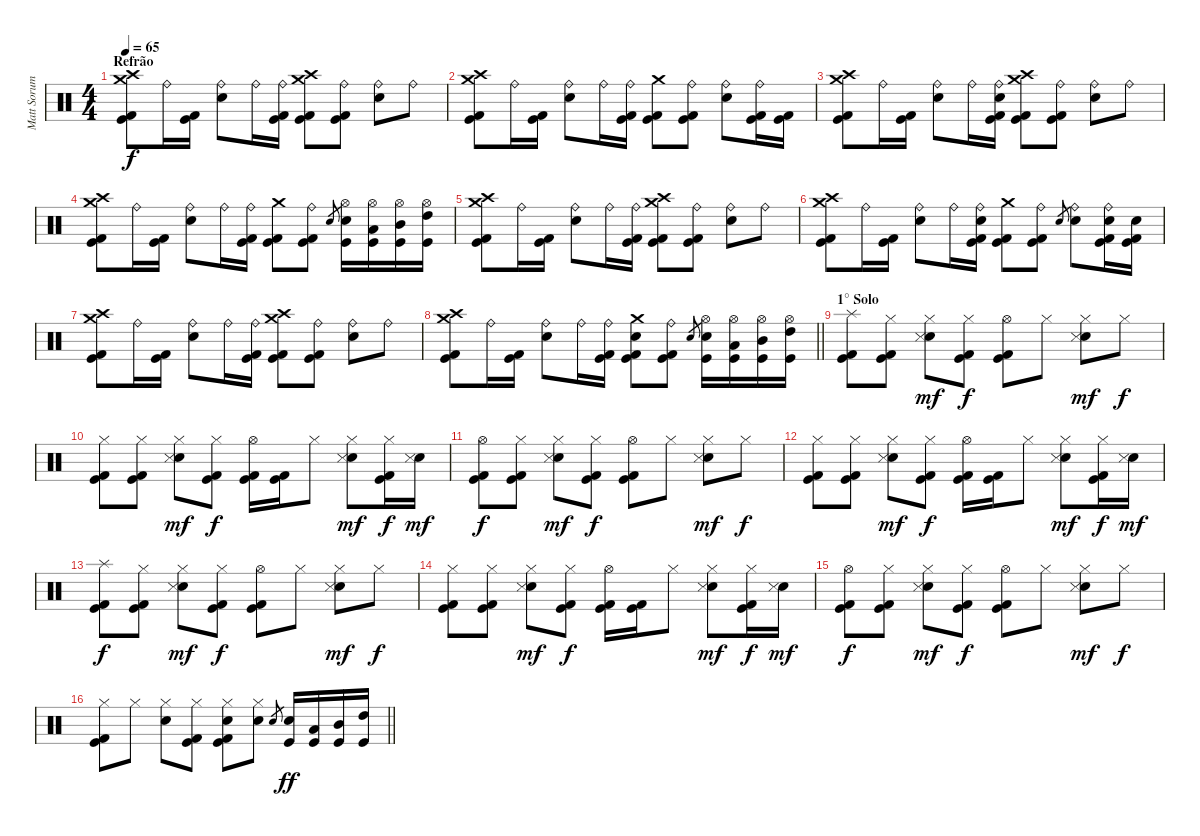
\track ("Matt Sorum" "Matt Sorum") {instrument percussion}
\staff {score}
\articulation defaults
\ts (4 4)
\section ("" "Refrão")
\tempo 65
\clef neutral
\ks c
("Crash medium (hit)" "Crash high (hit)" "Kick (hit) 2" "Kick (hit)").8{dy f} "Ride (bell)".16 ("Kick (hit) 2" "Kick (hit)").16 ("Ride (bell)" "Electric Snare (hit)").8 "Ride (bell)".16 ("Ride (bell)" "Kick (hit) 2" "Kick (hit)").16 ("Crash medium (hit)" "Crash high (hit)" "Kick (hit) 2" "Kick (hit)").8 ("Ride (bell)" "Kick (hit) 2" "Kick (hit)").8 ("Ride (bell)" "Electric Snare (hit)").8 "Ride (bell)".8 |
("Crash medium (hit)" "Crash high (hit)" "Kick (hit) 2" "Kick (hit)").8 "Ride (bell)".16 ("Kick (hit) 2" "Kick (hit)").16 ("Ride (bell)" "Electric Snare (hit)").8 "Ride (bell)".16 ("Ride (bell)" "Kick (hit) 2" "Kick (hit)").16 ("Crash medium (hit)" "Kick (hit) 2" "Kick (hit)").8 ("Ride (bell)" "Kick (hit) 2" "Kick (hit)").8 ("Ride (bell)" "Electric Snare (hit)").8 ("Ride (bell)" "Kick (hit) 2" "Kick (hit)").16 ("Kick (hit) 2" "Kick (hit)").16 |
("Crash medium (hit)" "Crash high (hit)" "Kick (hit) 2" "Kick (hit)").8 "Ride (bell)".16 ("Kick (hit) 2" "Kick (hit)").16 ("Ride (bell)" "Electric Snare (hit)").8 "Ride (bell)".16 ("Ride (bell)" "Electric Snare (hit)" "Kick (hit) 2" "Kick (hit)").16 ("Crash medium (hit)" "Crash high (hit)" "Kick (hit) 2" "Kick (hit)").8 ("Ride (bell)" "Kick (hit) 2" "Kick (hit)").8 ("Ride (bell)" "Electric Snare (hit)").8 "Ride (bell)".8 |
("Crash medium (hit)" "Crash high (hit)" "Kick (hit) 2" "Kick (hit)").8 "Ride (bell)".16 ("Kick (hit) 2" "Kick (hit)").16 ("Ride (bell)" "Electric Snare (hit)").8 "Ride (bell)".16 ("Ride (bell)" "Kick (hit) 2" "Kick (hit)").16 ("Crash medium (hit)" "Kick (hit) 2" "Kick (hit)").8 ("Ride (bell)" "Kick (hit) 2" "Kick (hit)").8 "Electric Snare (hit)".8{gr} ("Hi-Hat (open)" "Electric Snare (hit)" "Kick (hit)").16 ("Hi-Hat (open)" "Low Tom (hit)" "Kick (hit)").16 ("Hi-Hat (open)" "Mid Tom (hit)" "Kick (hit)").16 ("Hi-Hat (open)" "High Tom (hit)" "Kick (hit)").16 |
("Crash medium (hit)" "Crash high (hit)" "Kick (hit) 2" "Kick (hit)").8 "Ride (bell)".16 ("Kick (hit) 2" "Kick (hit)").16 ("Ride (bell)" "Electric Snare (hit)").8 "Ride (bell)".16 ("Ride (bell)" "Kick (hit) 2" "Kick (hit)").16 ("Crash medium (hit)" "Crash high (hit)" "Kick (hit) 2" "Kick (hit)").8 ("Ride (bell)" "Kick (hit) 2" "Kick (hit)").8 ("Ride (bell)" "Electric Snare (hit)").8 "Ride (bell)".8 |
("Crash medium (hit)" "Crash high (hit)" "Kick (hit) 2" "Kick (hit)").8 "Ride (bell)".16 ("Kick (hit) 2" "Kick (hit)").16 ("Ride (bell)" "Electric Snare (hit)").8 "Ride (bell)".16 ("Ride (bell)" "Electric Snare (hit)" "Kick (hit) 2" "Kick (hit)").16 ("Crash medium (hit)" "Kick (hit) 2" "Kick (hit)").8 ("Ride (bell)" "Kick (hit) 2" "Kick (hit)").8 "Electric Snare (hit)".8{gr} ("Ride (bell)" "Electric Snare (hit)").8 ("Ride (bell)" "Electric Snare (hit)" "Kick (hit) 2" "Kick (hit)").16 ("Electric Snare (hit)" "Kick (hit) 2" "Kick (hit)").16 |
("Crash medium (hit)" "Crash high (hit)" "Kick (hit) 2" "Kick (hit)").8 "Ride (bell)".16 ("Kick (hit) 2" "Kick (hit)").16 ("Ride (bell)" "Electric Snare (hit)").8 "Ride (bell)".16 ("Ride (bell)" "Kick (hit) 2" "Kick (hit)").16 ("Crash medium (hit)" "Crash high (hit)" "Kick (hit) 2" "Kick (hit)").8 ("Ride (bell)" "Kick (hit) 2" "Kick (hit)").8 ("Ride (bell)" "Electric Snare (hit)").8 "Ride (bell)".8 |
\barLineRight lightlight
("Crash medium (hit)" "Crash high (hit)" "Kick (hit) 2" "Kick (hit)").8 "Ride (bell)".16 ("Kick (hit) 2" "Kick (hit)").16 ("Ride (bell)" "Electric Snare (hit)").8 "Ride (bell)".16 ("Ride (bell)" "Kick (hit) 2" "Kick (hit)").16 ("Crash medium (hit)" "Electric Snare (hit)" "Kick (hit) 2" "Kick (hit)").8 ("Ride (bell)" "Kick (hit) 2" "Kick (hit)").8 "Electric Snare (hit)".8{gr} ("Hi-Hat (open)" "Electric Snare (hit)" "Kick (hit)").16 ("Hi-Hat (open)" "Low Tom (hit)" "Kick (hit)").16 ("Hi-Hat (open)" "Mid Tom (hit)" "Kick (hit)").16 ("Hi-Hat (open)" "High Tom (hit)" "Kick (hit)").16 |
\section ("" "1° Solo")
("Splash (hit)" "Kick (hit) 2" "Kick (hit)").8 ("Hi-Hat (closed)" "Kick (hit) 2" "Kick (hit)").8 ("Hi-Hat (closed)" "Electric Snare (hit)" "Snare (side stick) 3").8{dy mf} ("Hi-Hat (closed)" "Kick (hit) 2" "Kick (hit)").8{dy f} ("Hi-Hat (open)" "Kick (hit) 2" "Kick (hit)").8 "Hi-Hat (closed)".8 ("Hi-Hat (closed)" "Electric Snare (hit)" "Snare (side stick) 3").8{dy mf} "Hi-Hat (closed)".8{dy f} |
("Hi-Hat (closed)" "Kick (hit) 2" "Kick (hit)").8 ("Hi-Hat (closed)" "Kick (hit) 2" "Kick (hit)").8 ("Hi-Hat (closed)" "Electric Snare (hit)" "Snare (side stick) 3").8{dy mf} ("Hi-Hat (closed)" "Kick (hit) 2" "Kick (hit)").8{dy f} ("Hi-Hat (open)" "Kick (hit) 2" "Kick (hit)").16 ("Kick (hit)" "Kick (hit) 2").16 "Hi-Hat (closed)".8 ("Hi-Hat (closed)" "Electric Snare (hit)" "Snare (side stick) 3").8{dy mf} ("Hi-Hat (closed)" "Kick (hit) 2" "Kick (hit)").16{dy f} ("Electric Snare (hit)" "Snare (side stick) 3").16{dy mf} |
("Hi-Hat (open)" "Kick (hit) 2" "Kick (hit)").8{dy f} ("Hi-Hat (closed)" "Kick (hit) 2" "Kick (hit)").8 ("Hi-Hat (closed)" "Electric Snare (hit)" "Snare (side stick) 3").8{dy mf} ("Hi-Hat (closed)" "Kick (hit) 2" "Kick (hit)").8{dy f} ("Hi-Hat (open)" "Kick (hit) 2" "Kick (hit)").8 "Hi-Hat (closed)".8 ("Hi-Hat (closed)" "Electric Snare (hit)" "Snare (side stick) 3").8{dy mf} "Hi-Hat (closed)".8{dy f} |
("Hi-Hat (closed)" "Kick (hit) 2" "Kick (hit)").8 ("Hi-Hat (closed)" "Kick (hit) 2" "Kick (hit)").8 ("Hi-Hat (closed)" "Electric Snare (hit)" "Snare (side stick) 3").8{dy mf} ("Hi-Hat (closed)" "Kick (hit) 2" "Kick (hit)").8{dy f} ("Hi-Hat (open)" "Kick (hit) 2" "Kick (hit)").16 ("Kick (hit)" "Kick (hit) 2").16 "Hi-Hat (closed)".8 ("Hi-Hat (closed)" "Electric Snare (hit)" "Snare (side stick) 3").8{dy mf} ("Hi-Hat (closed)" "Kick (hit) 2" "Kick (hit)").16{dy f} ("Electric Snare (hit)" "Snare (side stick) 3").16{dy mf} |
("Splash (hit)" "Kick (hit) 2" "Kick (hit)").8{dy f} ("Hi-Hat (closed)" "Kick (hit) 2" "Kick (hit)").8 ("Hi-Hat (closed)" "Electric Snare (hit)" "Snare (side stick) 3").8{dy mf} ("Hi-Hat (closed)" "Kick (hit) 2" "Kick (hit)").8{dy f} ("Hi-Hat (open)" "Kick (hit) 2" "Kick (hit)").8 "Hi-Hat (closed)".8 ("Hi-Hat (closed)" "Electric Snare (hit)" "Snare (side stick) 3").8{dy mf} "Hi-Hat (closed)".8{dy f} |
("Hi-Hat (closed)" "Kick (hit) 2" "Kick (hit)").8 ("Hi-Hat (closed)" "Kick (hit) 2" "Kick (hit)").8 ("Hi-Hat (closed)" "Electric Snare (hit)" "Snare (side stick) 3").8{dy mf} ("Hi-Hat (closed)" "Kick (hit) 2" "Kick (hit)").8{dy f} ("Hi-Hat (open)" "Kick (hit) 2" "Kick (hit)").16 ("Kick (hit)" "Kick (hit) 2").16 "Hi-Hat (closed)".8 ("Hi-Hat (closed)" "Electric Snare (hit)" "Snare (side stick) 3").8{dy mf} ("Hi-Hat (closed)" "Kick (hit) 2" "Kick (hit)").16{dy f} ("Electric Snare (hit)" "Snare (side stick) 3").16{dy mf} |
("Hi-Hat (open)" "Kick (hit) 2" "Kick (hit)").8{dy f} ("Hi-Hat (closed)" "Kick (hit) 2" "Kick (hit)").8 ("Hi-Hat (closed)" "Electric Snare (hit)" "Snare (side stick) 3").8{dy mf} ("Hi-Hat (closed)" "Kick (hit) 2" "Kick (hit)").8{dy f} ("Hi-Hat (open)" "Kick (hit) 2" "Kick (hit)").8 "Hi-Hat (closed)".8 ("Hi-Hat (closed)" "Electric Snare (hit)" "Snare (side stick) 3").8{dy mf} "Hi-Hat (closed)".8{dy f} |
\barLineRight lightlight
("Hi-Hat (closed)" "Kick (hit) 2" "Kick (hit)").8 "Hi-Hat (closed)".8 ("Hi-Hat (closed)" "Electric Snare (hit)").8 ("Hi-Hat (closed)" "Kick (hit) 2" "Kick (hit)").8 ("Hi-Hat (closed)" "Electric Snare (hit)" "Kick (hit) 2" "Kick (hit)").8 ("Hi-Hat (closed)" "Electric Snare (hit)").8 "Electric Snare (hit)".8{gr} ("Electric Snare (hit)" "Kick (hit)").16{dy ff} ("Low Tom (hit)" "Kick (hit)").16 ("Mid Tom (hit)" "Kick (hit)").16 ("High Tom (hit)" "Kick (hit)").16
